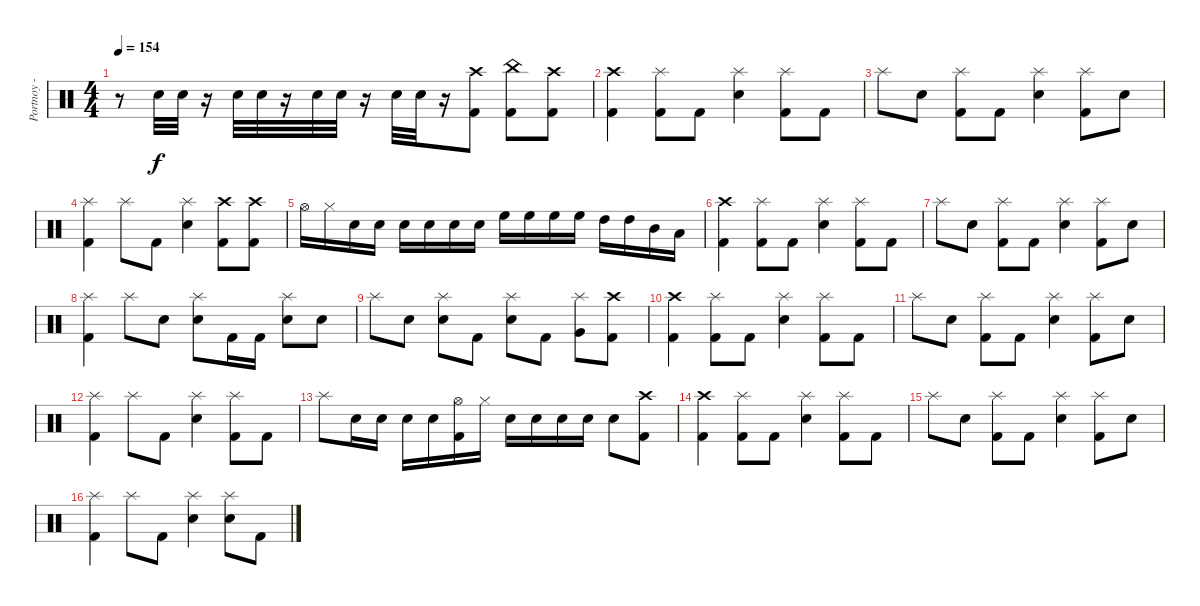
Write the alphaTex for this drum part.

\track ("Portnoy - Drums" "Portnoy - ") {instrument percussion}
\staff {score}
\articulation defaults
\ts (4 4)
\tempo 154
\clef neutral
\ks c
r.8{dy f} "Electric Snare (hit)".32 "Electric Snare (hit)".32 r.16 "Electric Snare (hit)".32 "Electric Snare (hit)".32 r.16 "Electric Snare (hit)".32 "Electric Snare (hit)".32 r.16 "Electric Snare (hit)".32 "Electric Snare (hit)".32 r.16 ("Kick (hit) 2" "Crash high (hit)").8 ("Kick (hit) 2" "China (hit)").8 ("Kick (hit) 2" "Crash high (hit)").8 |
("Kick (hit) 2" "Crash high (hit)").4 ("Kick (hit) 2" "Splash (hit)").8 "Kick (hit) 2".8 ("Electric Snare (hit)" "Splash (hit)").4 ("Kick (hit) 2" "Splash (hit)").8 "Kick (hit) 2".8 |
"Splash (hit)".8 "Electric Snare (hit)".8 ("Kick (hit) 2" "Splash (hit)").8 "Kick (hit) 2".8 ("Electric Snare (hit)" "Splash (hit)").4 ("Kick (hit) 2" "Splash (hit)").8 "Electric Snare (hit)".8 |
("Kick (hit) 2" "Splash (hit)").4 "Splash (hit)".8 "Kick (hit) 2".8 ("Electric Snare (hit)" "Splash (hit)").4 ("Kick (hit) 2" "Crash high (hit)").8 ("Kick (hit) 2" "Crash high (hit)").8 |
"Hi-Hat (open)".16 "Hi-Hat (closed)".16 "Electric Snare (hit)".16 "Electric Snare (hit)".16 "Electric Snare (hit)".16 "Electric Snare (hit)".16 "Electric Snare (hit)".16 "Electric Snare (hit)".16 "High Floor Tom (hit)".16 "High Floor Tom (hit)".16 "High Floor Tom (hit)".16 "High Floor Tom (hit)".16 "High Tom (hit)".16 "High Tom (hit)".16 "Mid Tom (hit)".16 "Low Tom (hit)".16 |
("Kick (hit) 2" "Crash high (hit)").4 ("Kick (hit) 2" "Splash (hit)").8 "Kick (hit) 2".8 ("Electric Snare (hit)" "Splash (hit)").4 ("Kick (hit) 2" "Splash (hit)").8 "Kick (hit) 2".8 |
"Splash (hit)".8 "Electric Snare (hit)".8 ("Kick (hit) 2" "Splash (hit)").8 "Kick (hit) 2".8 ("Electric Snare (hit)" "Splash (hit)").4 ("Kick (hit) 2" "Splash (hit)").8 "Electric Snare (hit)".8 |
("Kick (hit) 2" "Splash (hit)").4 "Splash (hit)".8 "Electric Snare (hit)".8 ("Electric Snare (hit)" "Splash (hit)").8 "Kick (hit) 2".16 "Kick (hit) 2".16 ("Electric Snare (hit)" "Splash (hit)").8 "Electric Snare (hit)".8 |
"Splash (hit)".8 "Electric Snare (hit)".8 ("Electric Snare (hit)" "Splash (hit)").8 "Kick (hit) 2".8 ("Electric Snare (hit)" "Splash (hit)").8 "Kick (hit) 2".8 ("Very Low Tom (hit)" "Splash (hit)").8 ("Kick (hit) 2" "Crash high (hit)").8 |
("Crash high (hit)" "Kick (hit) 2").4 ("Kick (hit) 2" "Splash (hit)").8 "Kick (hit) 2".8 ("Electric Snare (hit)" "Splash (hit)").4 ("Kick (hit) 2" "Splash (hit)").8 "Kick (hit) 2".8 |
"Splash (hit)".8 "Electric Snare (hit)".8 ("Kick (hit) 2" "Splash (hit)").8 "Kick (hit) 2".8 ("Electric Snare (hit)" "Splash (hit)").4 ("Kick (hit) 2" "Splash (hit)").8 "Electric Snare (hit)".8 |
("Kick (hit) 2" "Splash (hit)").4 "Splash (hit)".8 "Kick (hit) 2".8 ("Electric Snare (hit)" "Splash (hit)").4 ("Kick (hit) 2" "Splash (hit)").8 "Kick (hit) 2".8 |
"Splash (hit)".8 "Electric Snare (hit)".16 "Electric Snare (hit)".16 "Electric Snare (hit)".16 "Electric Snare (hit)".16 ("Hi-Hat (open)" "Kick (hit) 2").16 "Hi-Hat (closed)".16 "Electric Snare (hit)".16 "Electric Snare (hit)".16 "Electric Snare (hit)".16 "Electric Snare (hit)".16 "Electric Snare (hit)".8 ("Kick (hit) 2" "Crash high (hit)").8 |
("Kick (hit) 2" "Crash high (hit)").4 ("Kick (hit) 2" "Splash (hit)").8 "Kick (hit) 2".8 ("Electric Snare (hit)" "Splash (hit)").4 ("Kick (hit) 2" "Splash (hit)").8 "Kick (hit) 2".8 |
"Splash (hit)".8 "Electric Snare (hit)".8 ("Kick (hit) 2" "Splash (hit)").8 "Kick (hit) 2".8 ("Electric Snare (hit)" "Splash (hit)").4 ("Kick (hit) 2" "Splash (hit)").8 "Electric Snare (hit)".8 |
("Kick (hit) 2" "Splash (hit)").4 "Splash (hit)".8 "Kick (hit) 2".8 ("Electric Snare (hit)" "Splash (hit)").4 ("Electric Snare (hit)" "Splash (hit)").8 "Kick (hit) 2".8
